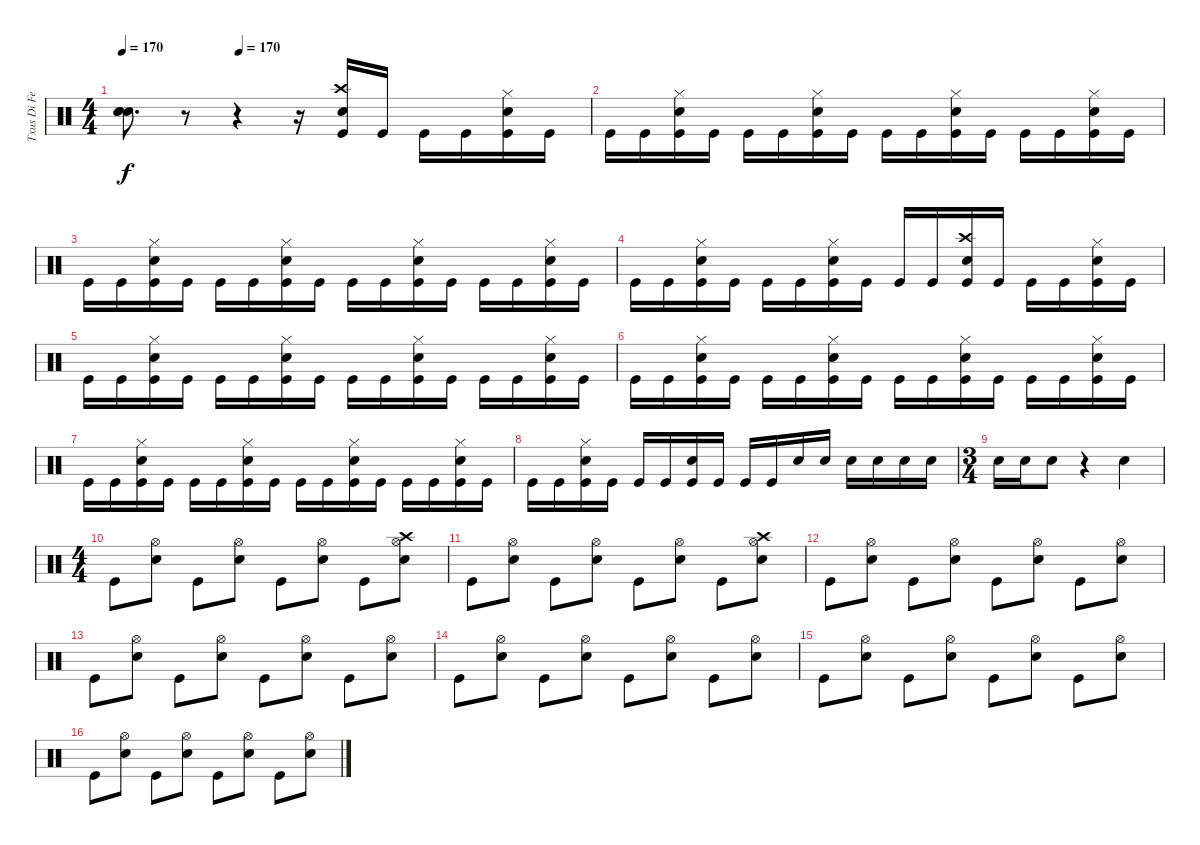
\track ("Txus Di Fellatio" "Txus Di Fe") {instrument percussion}
\staff {score}
\articulation defaults
\ts (4 4)
\tempo 170
\tempo (170 0.25)
\clef neutral
\ks c
("Snare (hit)"{t} "Snare (hit)"{t} "Snare (hit)"{t}).8{d dy f} r.8 r.4 r.16 ("Crash high (hit)" "Kick (hit)" "Snare (hit) 2").16 "Kick (hit)".16 "Kick (hit)".16 "Kick (hit)".16 ("Hi-Hat (closed)" "Kick (hit)" "Snare (hit) 2").16 "Kick (hit)".16 |
"Kick (hit)".16 "Kick (hit)".16 ("Hi-Hat (closed)" "Kick (hit)" "Snare (hit) 2").16 "Kick (hit)".16 "Kick (hit)".16 "Kick (hit)".16 ("Hi-Hat (closed)" "Kick (hit)" "Snare (hit) 2").16 "Kick (hit)".16 "Kick (hit)".16 "Kick (hit)".16 ("Hi-Hat (closed)" "Kick (hit)" "Snare (hit) 2").16 "Kick (hit)".16 "Kick (hit)".16 "Kick (hit)".16 ("Hi-Hat (closed)" "Kick (hit)" "Snare (hit) 2").16 "Kick (hit)".16 |
"Kick (hit)".16 "Kick (hit)".16 ("Hi-Hat (closed)" "Kick (hit)" "Snare (hit) 2").16 "Kick (hit)".16 "Kick (hit)".16 "Kick (hit)".16 ("Hi-Hat (closed)" "Kick (hit)" "Snare (hit) 2").16 "Kick (hit)".16 "Kick (hit)".16 "Kick (hit)".16 ("Hi-Hat (closed)" "Kick (hit)" "Snare (hit) 2").16 "Kick (hit)".16 "Kick (hit)".16 "Kick (hit)".16 ("Hi-Hat (closed)" "Kick (hit)" "Snare (hit) 2").16 "Kick (hit)".16 |
"Kick (hit)".16 "Kick (hit)".16 ("Hi-Hat (closed)" "Kick (hit)" "Snare (hit) 2").16 "Kick (hit)".16 "Kick (hit)".16 "Kick (hit)".16 ("Hi-Hat (closed)" "Kick (hit)" "Snare (hit) 2").16 "Kick (hit)".16 "Kick (hit)".16 "Kick (hit)".16 ("Crash high (hit)" "Kick (hit)" "Snare (hit) 2").16 "Kick (hit)".16 "Kick (hit)".16 "Kick (hit)".16 ("Hi-Hat (closed)" "Kick (hit)" "Snare (hit) 2").16 "Kick (hit)".16 |
"Kick (hit)".16 "Kick (hit)".16 ("Hi-Hat (closed)" "Kick (hit)" "Snare (hit) 2").16 "Kick (hit)".16 "Kick (hit)".16 "Kick (hit)".16 ("Hi-Hat (closed)" "Kick (hit)" "Snare (hit) 2").16 "Kick (hit)".16 "Kick (hit)".16 "Kick (hit)".16 ("Hi-Hat (closed)" "Kick (hit)" "Snare (hit) 2").16 "Kick (hit)".16 "Kick (hit)".16 "Kick (hit)".16 ("Hi-Hat (closed)" "Kick (hit)" "Snare (hit) 2").16 "Kick (hit)".16 |
"Kick (hit)".16 "Kick (hit)".16 ("Hi-Hat (closed)" "Kick (hit)" "Snare (hit) 2").16 "Kick (hit)".16 "Kick (hit)".16 "Kick (hit)".16 ("Hi-Hat (closed)" "Kick (hit)" "Snare (hit) 2").16 "Kick (hit)".16 "Kick (hit)".16 "Kick (hit)".16 ("Hi-Hat (closed)" "Kick (hit)" "Snare (hit) 2").16 "Kick (hit)".16 "Kick (hit)".16 "Kick (hit)".16 ("Hi-Hat (closed)" "Kick (hit)" "Snare (hit) 2").16 "Kick (hit)".16 |
"Kick (hit)".16 "Kick (hit)".16 ("Hi-Hat (closed)" "Kick (hit)" "Snare (hit) 2").16 "Kick (hit)".16 "Kick (hit)".16 "Kick (hit)".16 ("Hi-Hat (closed)" "Kick (hit)" "Snare (hit) 2").16 "Kick (hit)".16 "Kick (hit)".16 "Kick (hit)".16 ("Hi-Hat (closed)" "Kick (hit)" "Snare (hit) 2").16 "Kick (hit)".16 "Kick (hit)".16 "Kick (hit)".16 ("Hi-Hat (closed)" "Kick (hit)" "Snare (hit) 2").16 "Kick (hit)".16 |
"Kick (hit)".16 "Kick (hit)".16 ("Hi-Hat (closed)" "Kick (hit)" "Snare (hit) 2").16 "Kick (hit)".16 "Kick (hit)".16 "Kick (hit)".16 ("Kick (hit)" "Snare (hit) 2").16 "Kick (hit)".16 "Kick (hit)".16 "Kick (hit)".16 "Snare (hit) 2".16 "Snare (hit) 2".16 "Snare (hit) 2".16 "Snare (hit) 2".16 "Snare (hit) 2".16 "Snare (hit) 2".16 |
\ts (3 4)
"Snare (hit) 2".16 "Snare (hit) 2".16 "Snare (hit) 2".8 r.4 "Snare (hit) 2".4 |
\ts (4 4)
"Kick (hit)".8 ("Hi-Hat (open)" "Snare (hit) 2").8 "Kick (hit)".8 ("Hi-Hat (open)" "Snare (hit) 2").8 "Kick (hit)".8 ("Hi-Hat (open)" "Snare (hit) 2").8 "Kick (hit)".8 ("Hi-Hat (open)" "Crash high (hit)" "Snare (hit) 2").8 |
"Kick (hit)".8 ("Hi-Hat (open)" "Snare (hit) 2").8 "Kick (hit)".8 ("Hi-Hat (open)" "Snare (hit) 2").8 "Kick (hit)".8 ("Hi-Hat (open)" "Snare (hit) 2").8 "Kick (hit)".8 ("Hi-Hat (open)" "Crash high (hit)" "Snare (hit) 2").8 |
"Kick (hit)".8 ("Hi-Hat (open)" "Snare (hit) 2").8 "Kick (hit)".8 ("Hi-Hat (open)" "Snare (hit) 2").8 "Kick (hit)".8 ("Hi-Hat (open)" "Snare (hit) 2").8 "Kick (hit)".8 ("Hi-Hat (open)" "Snare (hit) 2").8 |
"Kick (hit)".8 ("Hi-Hat (open)" "Snare (hit) 2").8 "Kick (hit)".8 ("Hi-Hat (open)" "Snare (hit) 2").8 "Kick (hit)".8 ("Hi-Hat (open)" "Snare (hit) 2").8 "Kick (hit)".8 ("Hi-Hat (open)" "Snare (hit) 2").8 |
"Kick (hit)".8 ("Hi-Hat (open)" "Snare (hit) 2").8 "Kick (hit)".8 ("Hi-Hat (open)" "Snare (hit) 2").8 "Kick (hit)".8 ("Hi-Hat (open)" "Snare (hit) 2").8 "Kick (hit)".8 ("Hi-Hat (open)" "Snare (hit) 2").8 |
"Kick (hit)".8 ("Hi-Hat (open)" "Snare (hit) 2").8 "Kick (hit)".8 ("Hi-Hat (open)" "Snare (hit) 2").8 "Kick (hit)".8 ("Hi-Hat (open)" "Snare (hit) 2").8 "Kick (hit)".8 ("Hi-Hat (open)" "Snare (hit) 2").8 |
"Kick (hit)".8 ("Hi-Hat (open)" "Snare (hit) 2").8 "Kick (hit)".8 ("Hi-Hat (open)" "Snare (hit) 2").8 "Kick (hit)".8 ("Hi-Hat (open)" "Snare (hit) 2").8 "Kick (hit)".8 ("Hi-Hat (open)" "Snare (hit) 2").8
